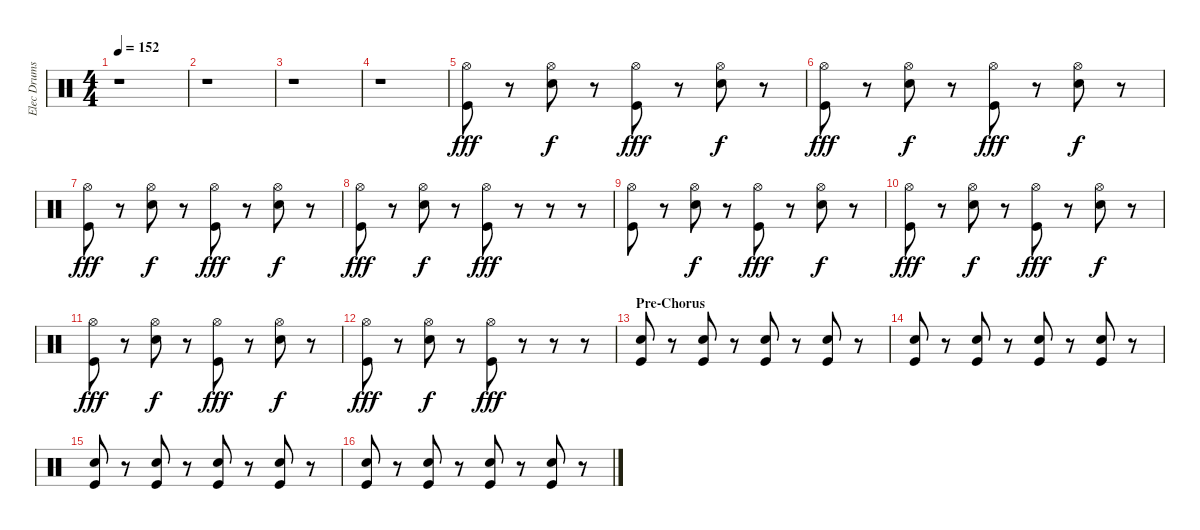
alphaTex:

\track ("Elec Drums" "Elec Drums") {instrument percussion}
\staff {score}
\articulation defaults
\ts (4 4)
\tempo 152
\clef neutral
\ks c
r.1{dy f} |
r.1 |
r.1 |
r.1 |
("Hi-Hat (open)" "Kick (hit)").8{dy fff} r.8 ("Hi-Hat (open)" "Electric Snare (hit)").8{dy f} r.8 ("Hi-Hat (open)" "Kick (hit)").8{dy fff} r.8 ("Hi-Hat (open)" "Electric Snare (hit)").8{dy f} r.8 |
("Hi-Hat (open)" "Kick (hit)").8{dy fff} r.8 ("Hi-Hat (open)" "Electric Snare (hit)").8{dy f} r.8 ("Hi-Hat (open)" "Kick (hit)").8{dy fff} r.8 ("Hi-Hat (open)" "Electric Snare (hit)").8{dy f} r.8 |
("Hi-Hat (open)" "Kick (hit)").8{dy fff} r.8 ("Hi-Hat (open)" "Electric Snare (hit)").8{dy f} r.8 ("Hi-Hat (open)" "Kick (hit)").8{dy fff} r.8 ("Hi-Hat (open)" "Electric Snare (hit)").8{dy f} r.8 |
("Hi-Hat (open)" "Kick (hit)").8{dy fff} r.8 ("Hi-Hat (open)" "Electric Snare (hit)").8{dy f} r.8 ("Hi-Hat (open)" "Kick (hit)").8{dy fff} r.8 r.8 r.8 |
("Hi-Hat (open)" "Kick (hit)").8 r.8 ("Hi-Hat (open)" "Electric Snare (hit)").8{dy f} r.8 ("Hi-Hat (open)" "Kick (hit)").8{dy fff} r.8 ("Hi-Hat (open)" "Electric Snare (hit)").8{dy f} r.8 |
("Hi-Hat (open)" "Kick (hit)").8{dy fff} r.8 ("Hi-Hat (open)" "Electric Snare (hit)").8{dy f} r.8 ("Hi-Hat (open)" "Kick (hit)").8{dy fff} r.8 ("Hi-Hat (open)" "Electric Snare (hit)").8{dy f} r.8 |
("Hi-Hat (open)" "Kick (hit)").8{dy fff} r.8 ("Hi-Hat (open)" "Electric Snare (hit)").8{dy f} r.8 ("Hi-Hat (open)" "Kick (hit)").8{dy fff} r.8 ("Hi-Hat (open)" "Electric Snare (hit)").8{dy f} r.8 |
\section ("" "")
("Hi-Hat (open)" "Kick (hit)").8{dy fff} r.8 ("Hi-Hat (open)" "Electric Snare (hit)").8{dy f} r.8 ("Hi-Hat (open)" "Kick (hit)").8{dy fff} r.8 r.8 r.8 |
\section ("" "Pre-Chorus")
("Electric Snare (hit)" "Kick (hit)").8 r.8 ("Electric Snare (hit)" "Kick (hit)").8 r.8 ("Electric Snare (hit)" "Kick (hit)").8 r.8 ("Electric Snare (hit)" "Kick (hit)").8 r.8 |
("Electric Snare (hit)" "Kick (hit)").8 r.8 ("Electric Snare (hit)" "Kick (hit)").8 r.8 ("Electric Snare (hit)" "Kick (hit)").8 r.8 ("Electric Snare (hit)" "Kick (hit)").8 r.8 |
("Electric Snare (hit)" "Kick (hit)").8 r.8 ("Electric Snare (hit)" "Kick (hit)").8 r.8 ("Electric Snare (hit)" "Kick (hit)").8 r.8 ("Electric Snare (hit)" "Kick (hit)").8 r.8 |
("Electric Snare (hit)" "Kick (hit)").8 r.8 ("Electric Snare (hit)" "Kick (hit)").8 r.8 ("Electric Snare (hit)" "Kick (hit)").8 r.8 ("Electric Snare (hit)" "Kick (hit)").8 r.8
